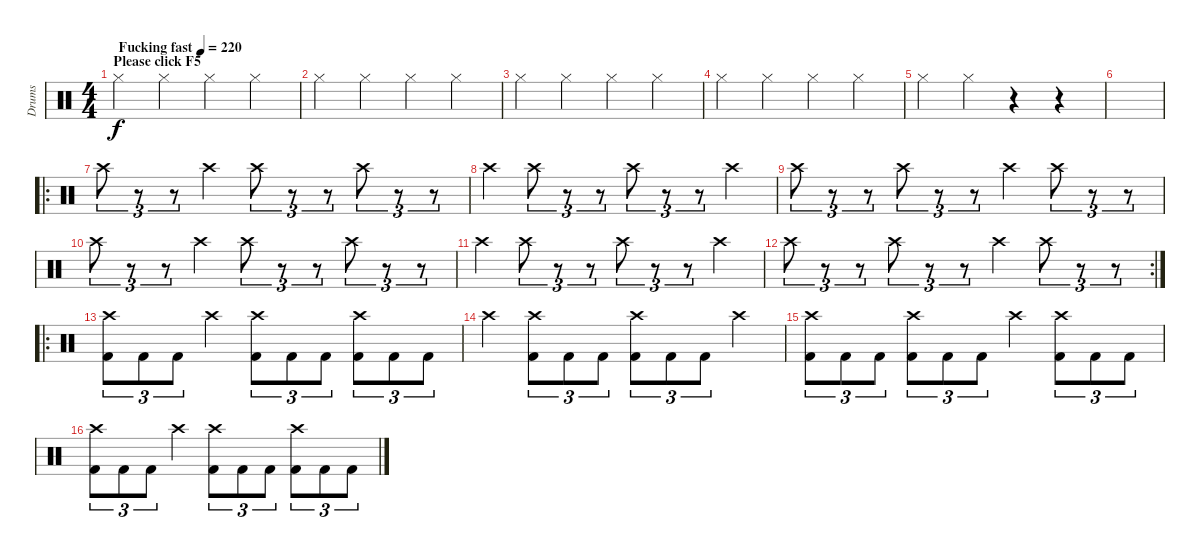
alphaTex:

\track ("Drums" "Drums") {instrument percussion}
\staff {score}
\articulation defaults
\ts (4 4)
\section ("" "Please click F5")
\tempo (220 "Fucking fast")
\clef neutral
\ks c "Hi-Hat (closed)".4{dy f} "Hi-Hat (closed)".4 "Hi-Hat (closed)".4 "Hi-Hat (closed)".4
|
"Hi-Hat (closed)".4 "Hi-Hat (closed)".4 "Hi-Hat (closed)".4 "Hi-Hat (closed)".4 |
"Hi-Hat (closed)".4 "Hi-Hat (closed)".4 "Hi-Hat (closed)".4 "Hi-Hat (closed)".4 |
"Hi-Hat (closed)".4 "Hi-Hat (closed)".4 "Hi-Hat (closed)".4 "Hi-Hat (closed)".4 |
"Hi-Hat (closed)".4 "Hi-Hat (closed)".4 r.4 r.4 |
|
\ro "Crash high (hit)".8{tu (3 2)}
r.8{tu (3 2)} r.8{tu (3 2)} "Crash high (hit)".4 "Crash high (hit)".8{tu (3 2)} r.8{tu (3 2)} r.8{tu (3 2)} "Crash high (hit)".8{tu (3 2)} r.8{tu (3 2)} r.8{tu (3 2)} |
"Crash high (hit)".4 "Crash high (hit)".8{tu (3 2)} r.8{tu (3 2)} r.8{tu (3 2)} "Crash high (hit)".8{tu (3 2)} r.8{tu (3 2)} r.8{tu (3 2)} "Crash high (hit)".4 |
"Crash high (hit)".8{tu (3 2)} r.8{tu (3 2)} r.8{tu (3 2)} "Crash high (hit)".8{tu (3 2)} r.8{tu (3 2)} r.8{tu (3 2)} "Crash high (hit)".4 "Crash high (hit)".8{tu (3 2)} r.8{tu (3 2)} r.8{tu (3 2)} |
"Crash high (hit)".8{tu (3 2)} r.8{tu (3 2)} r.8{tu (3 2)} "Crash high (hit)".4 "Crash high (hit)".8{tu (3 2)} r.8{tu (3 2)} r.8{tu (3 2)} "Crash high (hit)".8{tu (3 2)} r.8{tu (3 2)} r.8{tu (3 2)} |
"Crash high (hit)".4 "Crash high (hit)".8{tu (3 2)} r.8{tu (3 2)} r.8{tu (3 2)} "Crash high (hit)".8{tu (3 2)} r.8{tu (3 2)} r.8{tu (3 2)} "Crash high (hit)".4 |
\rc 2 "Crash high (hit)".8{tu (3 2)}
r.8{tu (3 2)} r.8{tu (3 2)} "Crash high (hit)".8{tu (3 2)} r.8{tu (3 2)} r.8{tu (3 2)} "Crash high (hit)".4 "Crash high (hit)".8{tu (3 2)} r.8{tu (3 2)} r.8{tu (3 2)} |
\ro
("Kick (hit) 2" "Crash high (hit)").8{tu (3 2)} "Kick (hit) 2".8{tu (3 2)} "Kick (hit) 2".8{tu (3 2)} "Crash high (hit)".4 ("Kick (hit) 2" "Crash high (hit)").8{tu (3 2)} "Kick (hit) 2".8{tu (3 2)} "Kick (hit) 2".8{tu (3 2)} ("Kick (hit) 2" "Crash high (hit)").8{tu (3 2)} "Kick (hit) 2".8{tu (3 2)} "Kick (hit) 2".8{tu (3 2)} |
"Crash high (hit)".4 ("Kick (hit) 2" "Crash high (hit)").8{tu (3 2)} "Kick (hit) 2".8{tu (3 2)} "Kick (hit) 2".8{tu (3 2)} ("Kick (hit) 2" "Crash high (hit)").8{tu (3 2)} "Kick (hit) 2".8{tu (3 2)} "Kick (hit) 2".8{tu (3 2)} "Crash high (hit)".4 |
("Kick (hit) 2" "Crash high (hit)").8{tu (3 2)} "Kick (hit) 2".8{tu (3 2)} "Kick (hit) 2".8{tu (3 2)} ("Kick (hit) 2" "Crash high (hit)").8{tu (3 2)} "Kick (hit) 2".8{tu (3 2)} "Kick (hit) 2".8{tu (3 2)} "Crash high (hit)".4 ("Kick (hit) 2" "Crash high (hit)").8{tu (3 2)} "Kick (hit) 2".8{tu (3 2)} "Kick (hit) 2".8{tu (3 2)} |
("Kick (hit) 2" "Crash high (hit)").8{tu (3 2)} "Kick (hit) 2".8{tu (3 2)} "Kick (hit) 2".8{tu (3 2)} "Crash high (hit)".4 ("Kick (hit) 2" "Crash high (hit)").8{tu (3 2)} "Kick (hit) 2".8{tu (3 2)} "Kick (hit) 2".8{tu (3 2)} ("Kick (hit) 2" "Crash high (hit)").8{tu (3 2)} "Kick (hit) 2".8{tu (3 2)} "Kick (hit) 2".8{tu (3 2)}
